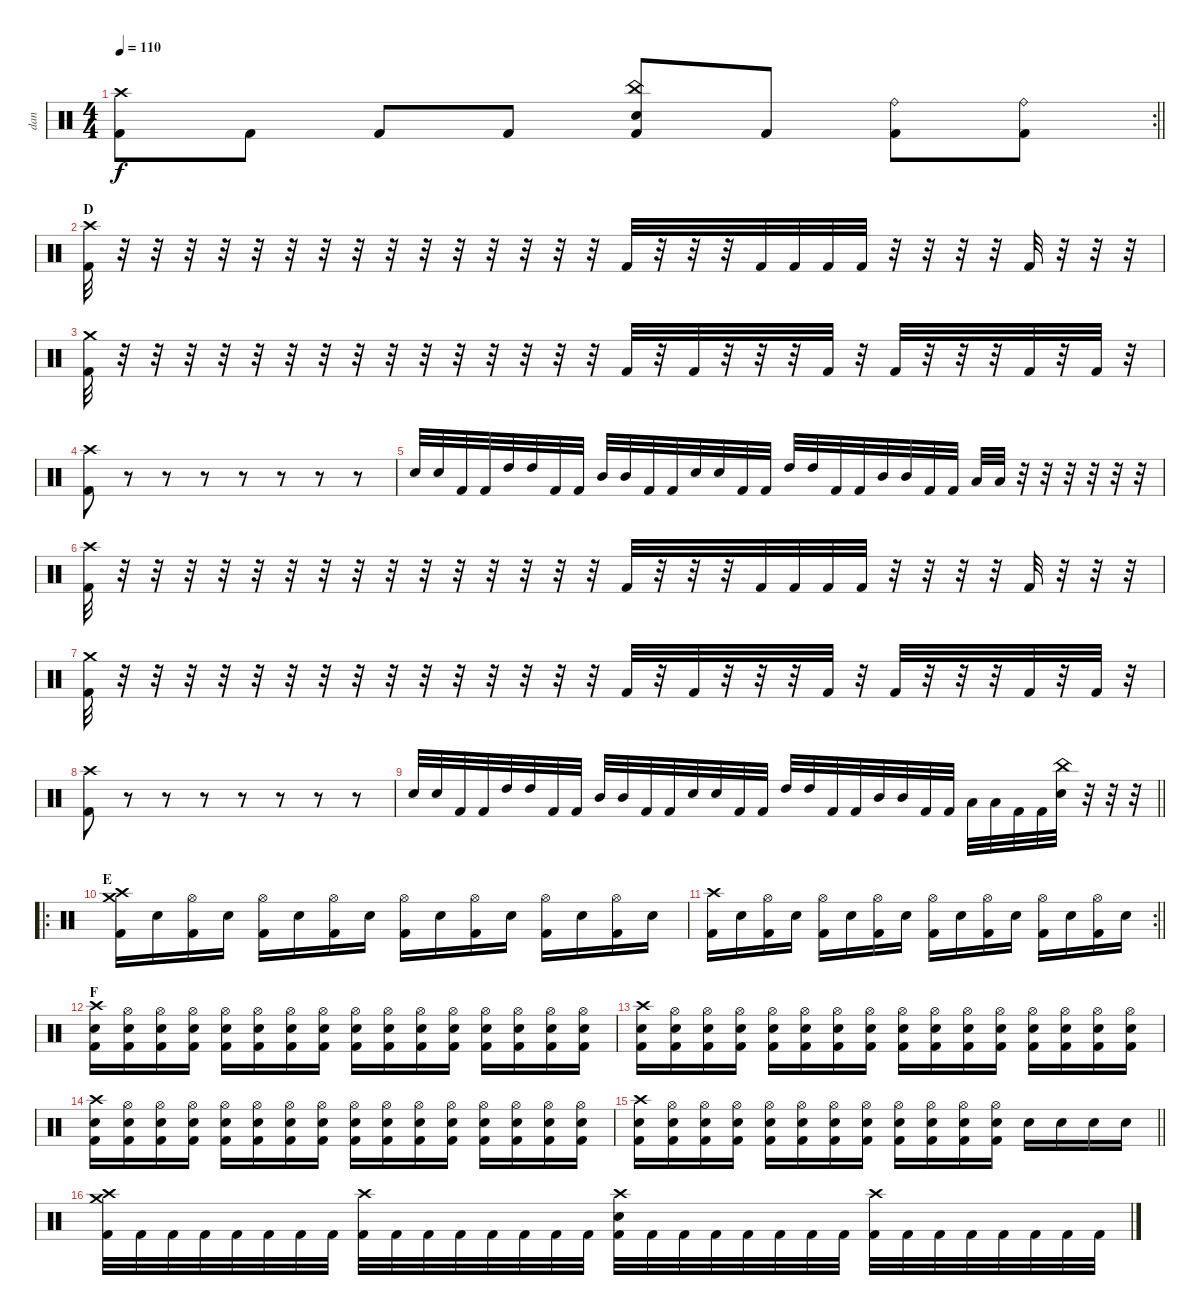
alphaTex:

\track ("dan" "dan") {instrument percussion}
\staff {score}
\articulation defaults
\rc 2
\ts (4 4)
\tempo 110
\clef neutral
\barLineRight lightlight
\ks c
("Crash high (hit)" "Kick (hit) 2").8{dy f} "Kick (hit) 2".8 "Kick (hit) 2".8 "Kick (hit) 2".8 ("China (hit)" "Electric Snare (hit)" "Kick (hit) 2").8 "Kick (hit) 2".8 ("Ride (bell)" "Kick (hit) 2").8 ("Ride (bell)" "Kick (hit) 2").8 |
\section ("" "D")
("Crash high (hit)" "Kick (hit) 2").32 r.32 r.32 r.32 r.32 r.32 r.32 r.32 r.32 r.32 r.32 r.32 r.32 r.32 r.32 r.32 "Kick (hit) 2".32 r.32 r.32 r.32 "Kick (hit) 2".32 "Kick (hit) 2".32 "Kick (hit) 2".32 "Kick (hit) 2".32 r.32 r.32 r.32 r.32 "Kick (hit) 2".32 r.32 r.32 r.32 |
("Crash medium (hit)" "Kick (hit) 2").32 r.32 r.32 r.32 r.32 r.32 r.32 r.32 r.32 r.32 r.32 r.32 r.32 r.32 r.32 r.32 "Kick (hit) 2".32 r.32 "Kick (hit) 2".32 r.32 r.32 r.32 "Kick (hit) 2".32 r.32 "Kick (hit) 2".32 r.32 r.32 r.32 "Kick (hit) 2".32 r.32 "Kick (hit) 2".32 r.32 |
("Crash high (hit)" "Kick (hit) 2").8 r.8 r.8 r.8 r.8 r.8 r.8 r.8 |
"Electric Snare (hit)".32 "Electric Snare (hit)".32 "Kick (hit) 2".32 "Kick (hit) 2".32 "High Tom (hit)".32 "High Tom (hit)".32 "Kick (hit) 2".32 "Kick (hit) 2".32 "Mid Tom (hit)".32 "Mid Tom (hit)".32 "Kick (hit) 2".32 "Kick (hit) 2".32 "Electric Snare (hit)".32 "Electric Snare (hit)".32 "Kick (hit) 2".32 "Kick (hit) 2".32 "High Tom (hit)".32 "High Tom (hit)".32 "Kick (hit) 2".32 "Kick (hit) 2".32 "Mid Tom (hit)".32 "Mid Tom (hit)".32 "Kick (hit) 2".32 "Kick (hit) 2".32 "Low Floor Tom (hit)".32 "Low Floor Tom (hit)".32 r.32 r.32 r.32 r.32 r.32 r.32 |
("Crash high (hit)" "Kick (hit) 2").32 r.32 r.32 r.32 r.32 r.32 r.32 r.32 r.32 r.32 r.32 r.32 r.32 r.32 r.32 r.32 "Kick (hit) 2".32 r.32 r.32 r.32 "Kick (hit) 2".32 "Kick (hit) 2".32 "Kick (hit) 2".32 "Kick (hit) 2".32 r.32 r.32 r.32 r.32 "Kick (hit) 2".32 r.32 r.32 r.32 |
("Crash medium (hit)" "Kick (hit) 2").32 r.32 r.32 r.32 r.32 r.32 r.32 r.32 r.32 r.32 r.32 r.32 r.32 r.32 r.32 r.32 "Kick (hit) 2".32 r.32 "Kick (hit) 2".32 r.32 r.32 r.32 "Kick (hit) 2".32 r.32 "Kick (hit) 2".32 r.32 r.32 r.32 "Kick (hit) 2".32 r.32 "Kick (hit) 2".32 r.32 |
("Crash high (hit)" "Kick (hit) 2").8 r.8 r.8 r.8 r.8 r.8 r.8 r.8 |
\barLineRight lightlight "Electric Snare (hit)".32 "Electric Snare (hit)".32 "Kick (hit) 2".32 "Kick (hit) 2".32 "High Tom (hit)".32 "High Tom (hit)".32 "Kick (hit) 2".32 "Kick (hit) 2".32 "Mid Tom (hit)".32 "Mid Tom (hit)".32 "Kick (hit) 2".32 "Kick (hit) 2".32 "Electric Snare (hit)".32 "Electric Snare (hit)".32 "Kick (hit) 2".32 "Kick (hit) 2".32 "High Tom (hit)".32 "High Tom (hit)".32 "Kick (hit) 2".32 "Kick (hit) 2".32 "Mid Tom (hit)".32 "Mid Tom (hit)".32 "Kick (hit) 2".32 "Kick (hit) 2".32 "Low Floor Tom (hit)".32 "Low Floor Tom (hit)".32 "Kick (hit) 2".32 "Kick (hit) 2".32
("China (hit)" "Electric Snare (hit)").32 r.32 r.32 r.32 |
\ro
\section ("" "E")
("Crash high (hit)" "Crash medium (hit)" "Kick (hit) 2").16 "Electric Snare (hit)".16 ("Hi-Hat (open)" "Kick (hit) 2").16 "Electric Snare (hit)".16 ("Hi-Hat (open)" "Kick (hit) 2").16 "Electric Snare (hit)".16 ("Hi-Hat (open)" "Kick (hit) 2").16 "Electric Snare (hit)".16 ("Hi-Hat (open)" "Kick (hit) 2").16 "Electric Snare (hit)".16 ("Hi-Hat (open)" "Kick (hit) 2").16 "Electric Snare (hit)".16 ("Hi-Hat (open)" "Kick (hit) 2").16 "Electric Snare (hit)".16 ("Hi-Hat (open)" "Kick (hit) 2").16 "Electric Snare (hit)".16 |
\rc 2
\barLineRight lightlight
("Crash high (hit)" "Kick (hit) 2").16 "Electric Snare (hit)".16 ("Hi-Hat (open)" "Kick (hit) 2").16 "Electric Snare (hit)".16 ("Hi-Hat (open)" "Kick (hit) 2").16 "Electric Snare (hit)".16 ("Hi-Hat (open)" "Kick (hit) 2").16 "Electric Snare (hit)".16 ("Hi-Hat (open)" "Kick (hit) 2").16 "Electric Snare (hit)".16 ("Hi-Hat (open)" "Kick (hit) 2").16 "Electric Snare (hit)".16 ("Hi-Hat (open)" "Kick (hit) 2").16 "Electric Snare (hit)".16 ("Hi-Hat (open)" "Kick (hit) 2").16 "Electric Snare (hit)".16 |
\section ("" "F")
("Crash high (hit)" "Electric Snare (hit)" "Kick (hit) 2").16 ("Hi-Hat (open)" "Electric Snare (hit)" "Kick (hit) 2").16 ("Hi-Hat (open)" "Electric Snare (hit)" "Kick (hit) 2").16 ("Hi-Hat (open)" "Electric Snare (hit)" "Kick (hit) 2").16 ("Hi-Hat (open)" "Electric Snare (hit)" "Kick (hit) 2").16 ("Hi-Hat (open)" "Electric Snare (hit)" "Kick (hit) 2").16 ("Hi-Hat (open)" "Electric Snare (hit)" "Kick (hit) 2").16 ("Hi-Hat (open)" "Electric Snare (hit)" "Kick (hit) 2").16 ("Hi-Hat (open)" "Electric Snare (hit)" "Kick (hit) 2").16 ("Hi-Hat (open)" "Electric Snare (hit)" "Kick (hit) 2").16 ("Hi-Hat (open)" "Electric Snare (hit)" "Kick (hit) 2").16 ("Hi-Hat (open)" "Electric Snare (hit)" "Kick (hit) 2").16 ("Hi-Hat (open)" "Electric Snare (hit)" "Kick (hit) 2").16 ("Hi-Hat (open)" "Electric Snare (hit)" "Kick (hit) 2").16 ("Hi-Hat (open)" "Electric Snare (hit)" "Kick (hit) 2").16 ("Hi-Hat (open)" "Electric Snare (hit)" "Kick (hit) 2").16 |
("Crash high (hit)" "Electric Snare (hit)" "Kick (hit) 2").16 ("Hi-Hat (open)" "Electric Snare (hit)" "Kick (hit) 2").16 ("Hi-Hat (open)" "Electric Snare (hit)" "Kick (hit) 2").16 ("Hi-Hat (open)" "Electric Snare (hit)" "Kick (hit) 2").16 ("Hi-Hat (open)" "Electric Snare (hit)" "Kick (hit) 2").16 ("Hi-Hat (open)" "Electric Snare (hit)" "Kick (hit) 2").16 ("Hi-Hat (open)" "Electric Snare (hit)" "Kick (hit) 2").16 ("Hi-Hat (open)" "Electric Snare (hit)" "Kick (hit) 2").16 ("Hi-Hat (open)" "Electric Snare (hit)" "Kick (hit) 2").16 ("Hi-Hat (open)" "Electric Snare (hit)" "Kick (hit) 2").16 ("Hi-Hat (open)" "Electric Snare (hit)" "Kick (hit) 2").16 ("Hi-Hat (open)" "Electric Snare (hit)" "Kick (hit) 2").16 ("Hi-Hat (open)" "Electric Snare (hit)" "Kick (hit) 2").16 ("Hi-Hat (open)" "Electric Snare (hit)" "Kick (hit) 2").16 ("Hi-Hat (open)" "Electric Snare (hit)" "Kick (hit) 2").16 ("Hi-Hat (open)" "Electric Snare (hit)" "Kick (hit) 2").16 |
("Crash high (hit)" "Electric Snare (hit)" "Kick (hit) 2").16 ("Hi-Hat (open)" "Electric Snare (hit)" "Kick (hit) 2").16 ("Hi-Hat (open)" "Electric Snare (hit)" "Kick (hit) 2").16 ("Hi-Hat (open)" "Electric Snare (hit)" "Kick (hit) 2").16 ("Hi-Hat (open)" "Electric Snare (hit)" "Kick (hit) 2").16 ("Hi-Hat (open)" "Electric Snare (hit)" "Kick (hit) 2").16 ("Hi-Hat (open)" "Electric Snare (hit)" "Kick (hit) 2").16 ("Hi-Hat (open)" "Electric Snare (hit)" "Kick (hit) 2").16 ("Hi-Hat (open)" "Electric Snare (hit)" "Kick (hit) 2").16 ("Hi-Hat (open)" "Electric Snare (hit)" "Kick (hit) 2").16 ("Hi-Hat (open)" "Electric Snare (hit)" "Kick (hit) 2").16 ("Hi-Hat (open)" "Electric Snare (hit)" "Kick (hit) 2").16 ("Hi-Hat (open)" "Electric Snare (hit)" "Kick (hit) 2").16 ("Hi-Hat (open)" "Electric Snare (hit)" "Kick (hit) 2").16 ("Hi-Hat (open)" "Electric Snare (hit)" "Kick (hit) 2").16 ("Hi-Hat (open)" "Electric Snare (hit)" "Kick (hit) 2").16 |
\barLineRight lightlight
("Crash high (hit)" "Electric Snare (hit)" "Kick (hit) 2").16 ("Hi-Hat (open)" "Electric Snare (hit)" "Kick (hit) 2").16 ("Hi-Hat (open)" "Electric Snare (hit)" "Kick (hit) 2").16 ("Hi-Hat (open)" "Electric Snare (hit)" "Kick (hit) 2").16 ("Hi-Hat (open)" "Electric Snare (hit)" "Kick (hit) 2").16 ("Hi-Hat (open)" "Electric Snare (hit)" "Kick (hit) 2").16 ("Hi-Hat (open)" "Electric Snare (hit)" "Kick (hit) 2").16 ("Hi-Hat (open)" "Electric Snare (hit)" "Kick (hit) 2").16 ("Hi-Hat (open)" "Electric Snare (hit)" "Kick (hit) 2").16 ("Hi-Hat (open)" "Electric Snare (hit)" "Kick (hit) 2").16 ("Hi-Hat (open)" "Electric Snare (hit)" "Kick (hit) 2").16 ("Hi-Hat (open)" "Electric Snare (hit)" "Kick (hit) 2").16 "Electric Snare (hit)".16 "Electric Snare (hit)".16 "Electric Snare (hit)".16 "Electric Snare (hit)".16 |
("Crash high (hit)" "Crash medium (hit)" "Kick (hit) 2").32 "Kick (hit) 2".32 "Kick (hit) 2".32 "Kick (hit) 2".32 "Kick (hit) 2".32 "Kick (hit) 2".32 "Kick (hit) 2".32 "Kick (hit) 2".32 ("Crash high (hit)" "Kick (hit) 2").32 "Kick (hit) 2".32 "Kick (hit) 2".32 "Kick (hit) 2".32 "Kick (hit) 2".32 "Kick (hit) 2".32 "Kick (hit) 2".32 "Kick (hit) 2".32 ("Crash high (hit)" "Electric Snare (hit)" "Kick (hit) 2").32 "Kick (hit) 2".32 "Kick (hit) 2".32 "Kick (hit) 2".32 "Kick (hit) 2".32 "Kick (hit) 2".32 "Kick (hit) 2".32 "Kick (hit) 2".32 ("Crash high (hit)" "Kick (hit) 2").32 "Kick (hit) 2".32 "Kick (hit) 2".32 "Kick (hit) 2".32 "Kick (hit) 2".32 "Kick (hit) 2".32 "Kick (hit) 2".32 "Kick (hit) 2".32
